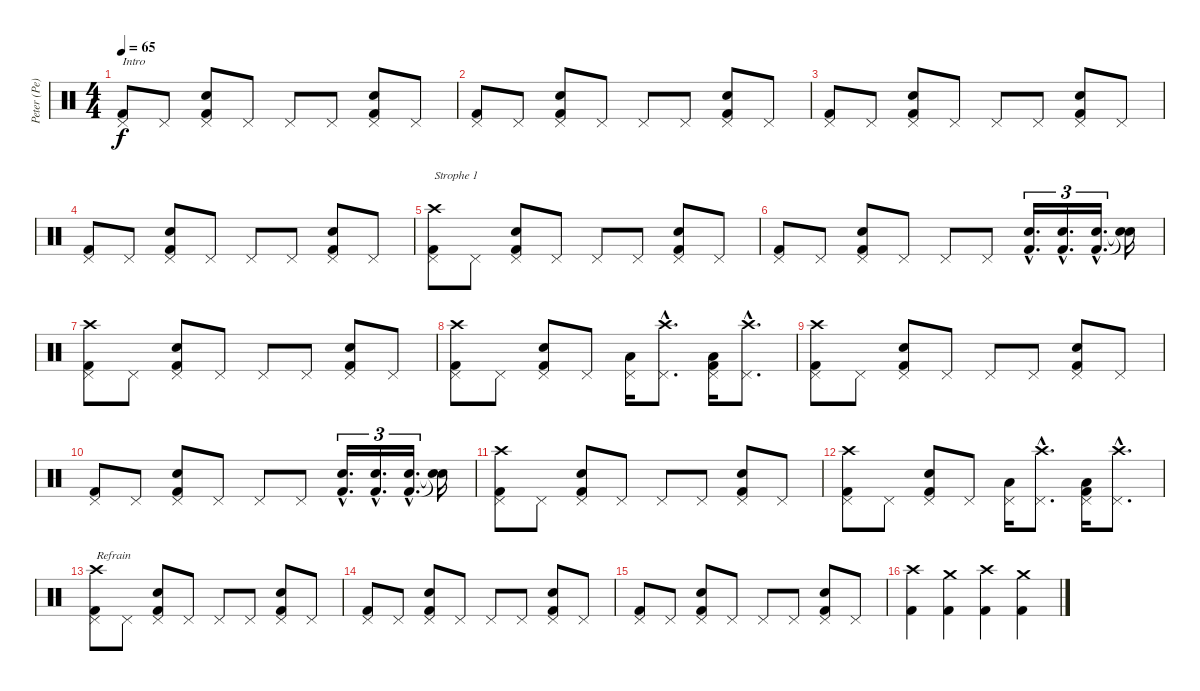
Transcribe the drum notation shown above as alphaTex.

\track ("Peter (Pe) Schorowsky" "Peter (Pe)") {instrument percussion}
\staff {score}
\articulation defaults
\ts (4 4)
\tempo 65
\clef neutral
\ks c
("Pedal Hi-Hat (hit)" "Kick (hit) 2").8{txt "Intro" dy f} "Pedal Hi-Hat (hit)".8 ("Pedal Hi-Hat (hit)" "Snare (hit) 2" "Kick (hit) 2").8 "Pedal Hi-Hat (hit)".8 "Pedal Hi-Hat (hit)".8 "Pedal Hi-Hat (hit)".8 ("Pedal Hi-Hat (hit)" "Snare (hit) 2" "Kick (hit) 2").8 "Pedal Hi-Hat (hit)".8 |
("Pedal Hi-Hat (hit)" "Kick (hit) 2").8 "Pedal Hi-Hat (hit)".8 ("Pedal Hi-Hat (hit)" "Snare (hit) 2" "Kick (hit) 2").8 "Pedal Hi-Hat (hit)".8 "Pedal Hi-Hat (hit)".8 "Pedal Hi-Hat (hit)".8 ("Pedal Hi-Hat (hit)" "Snare (hit) 2" "Kick (hit) 2").8 "Pedal Hi-Hat (hit)".8 |
("Pedal Hi-Hat (hit)" "Kick (hit) 2").8 "Pedal Hi-Hat (hit)".8 ("Pedal Hi-Hat (hit)" "Snare (hit) 2" "Kick (hit) 2").8 "Pedal Hi-Hat (hit)".8 "Pedal Hi-Hat (hit)".8 "Pedal Hi-Hat (hit)".8 ("Pedal Hi-Hat (hit)" "Snare (hit) 2" "Kick (hit) 2").8 "Pedal Hi-Hat (hit)".8 |
("Pedal Hi-Hat (hit)" "Kick (hit) 2").8 "Pedal Hi-Hat (hit)".8 ("Pedal Hi-Hat (hit)" "Snare (hit) 2" "Kick (hit) 2").8 "Pedal Hi-Hat (hit)".8 "Pedal Hi-Hat (hit)".8 "Pedal Hi-Hat (hit)".8 ("Pedal Hi-Hat (hit)" "Snare (hit) 2" "Kick (hit) 2").8 "Pedal Hi-Hat (hit)".8 |
("Crash high (hit)" "Pedal Hi-Hat (hit)" "Kick (hit) 2").8{txt "Strophe 1"} "Pedal Hi-Hat (hit)".8 ("Pedal Hi-Hat (hit)" "Snare (hit) 2" "Kick (hit) 2").8 "Pedal Hi-Hat (hit)".8 "Pedal Hi-Hat (hit)".8 "Pedal Hi-Hat (hit)".8 ("Pedal Hi-Hat (hit)" "Snare (hit) 2" "Kick (hit) 2").8 "Pedal Hi-Hat (hit)".8 |
("Pedal Hi-Hat (hit)" "Kick (hit) 2").8 "Pedal Hi-Hat (hit)".8 ("Pedal Hi-Hat (hit)" "Snare (hit) 2" "Kick (hit) 2").8 "Pedal Hi-Hat (hit)".8 "Pedal Hi-Hat (hit)".8 "Pedal Hi-Hat (hit)".8 ("Snare (hit) 2"{hac} "Kick (hit) 2"{hac}).16{d tu (3 2)} ("Snare (hit) 2"{hac} "Kick (hit) 2"{hac}).16{d tu (3 2)} ("Snare (hit) 2"{hac} "Kick (hit) 2"{hac}).16{d tu (3 2)} ("Snare (hit)"{t} "Snare (hit)"{t}).16 |
("Crash high (hit)" "Pedal Hi-Hat (hit)" "Kick (hit) 2").8 "Pedal Hi-Hat (hit)".8 ("Pedal Hi-Hat (hit)" "Snare (hit) 2" "Kick (hit) 2").8 "Pedal Hi-Hat (hit)".8 "Pedal Hi-Hat (hit)".8 "Pedal Hi-Hat (hit)".8 ("Pedal Hi-Hat (hit)" "Snare (hit) 2" "Kick (hit) 2").8 "Pedal Hi-Hat (hit)".8 |
("Crash high (hit)" "Pedal Hi-Hat (hit)" "Kick (hit) 2").8 "Pedal Hi-Hat (hit)".8 ("Pedal Hi-Hat (hit)" "Snare (hit) 2" "Kick (hit) 2").8 "Pedal Hi-Hat (hit)".8 ("Pedal Hi-Hat (hit)" "Low Tom (hit)").16 ("Crash high (hit)"{hac} "Pedal Hi-Hat (hit)"{hac}).8{d} ("Pedal Hi-Hat (hit)" "Low Tom (hit)" "Kick (hit) 2").16 ("Crash high (hit)"{hac} "Pedal Hi-Hat (hit)"{hac}).8{d} |
("Crash high (hit)" "Pedal Hi-Hat (hit)" "Kick (hit) 2").8 "Pedal Hi-Hat (hit)".8 ("Pedal Hi-Hat (hit)" "Snare (hit) 2" "Kick (hit) 2").8 "Pedal Hi-Hat (hit)".8 "Pedal Hi-Hat (hit)".8 "Pedal Hi-Hat (hit)".8 ("Pedal Hi-Hat (hit)" "Snare (hit) 2" "Kick (hit) 2").8 "Pedal Hi-Hat (hit)".8 |
("Pedal Hi-Hat (hit)" "Kick (hit) 2").8 "Pedal Hi-Hat (hit)".8 ("Pedal Hi-Hat (hit)" "Snare (hit) 2" "Kick (hit) 2").8 "Pedal Hi-Hat (hit)".8 "Pedal Hi-Hat (hit)".8 "Pedal Hi-Hat (hit)".8 ("Snare (hit) 2"{hac} "Kick (hit) 2"{hac}).16{d tu (3 2)} ("Snare (hit) 2"{hac} "Kick (hit) 2"{hac}).16{d tu (3 2)} ("Snare (hit) 2"{hac} "Kick (hit) 2"{hac}).16{d tu (3 2)} ("Snare (hit)"{t} "Snare (hit)"{t}).16 |
("Crash high (hit)" "Pedal Hi-Hat (hit)" "Kick (hit) 2").8 "Pedal Hi-Hat (hit)".8 ("Pedal Hi-Hat (hit)" "Snare (hit) 2" "Kick (hit) 2").8 "Pedal Hi-Hat (hit)".8 "Pedal Hi-Hat (hit)".8 "Pedal Hi-Hat (hit)".8 ("Pedal Hi-Hat (hit)" "Snare (hit) 2" "Kick (hit) 2").8 "Pedal Hi-Hat (hit)".8 |
("Crash high (hit)" "Pedal Hi-Hat (hit)" "Kick (hit) 2").8 "Pedal Hi-Hat (hit)".8 ("Pedal Hi-Hat (hit)" "Snare (hit) 2" "Kick (hit) 2").8 "Pedal Hi-Hat (hit)".8 ("Pedal Hi-Hat (hit)" "Low Tom (hit)").16 ("Crash high (hit)"{hac} "Pedal Hi-Hat (hit)"{hac}).8{d} ("Pedal Hi-Hat (hit)" "Low Tom (hit)" "Kick (hit) 2").16 ("Crash high (hit)"{hac} "Pedal Hi-Hat (hit)"{hac}).8{d} |
("Crash high (hit)" "Pedal Hi-Hat (hit)" "Kick (hit) 2").8{txt "Refrain"} "Pedal Hi-Hat (hit)".8 ("Pedal Hi-Hat (hit)" "Snare (hit) 2" "Kick (hit) 2").8 "Pedal Hi-Hat (hit)".8 "Pedal Hi-Hat (hit)".8 "Pedal Hi-Hat (hit)".8 ("Pedal Hi-Hat (hit)" "Snare (hit) 2" "Kick (hit) 2").8 "Pedal Hi-Hat (hit)".8 |
("Pedal Hi-Hat (hit)" "Kick (hit) 2").8 "Pedal Hi-Hat (hit)".8 ("Pedal Hi-Hat (hit)" "Snare (hit) 2" "Kick (hit) 2").8 "Pedal Hi-Hat (hit)".8 "Pedal Hi-Hat (hit)".8 "Pedal Hi-Hat (hit)".8 ("Pedal Hi-Hat (hit)" "Snare (hit) 2" "Kick (hit) 2").8 "Pedal Hi-Hat (hit)".8 |
("Pedal Hi-Hat (hit)" "Kick (hit) 2").8 "Pedal Hi-Hat (hit)".8 ("Pedal Hi-Hat (hit)" "Snare (hit) 2" "Kick (hit) 2").8 "Pedal Hi-Hat (hit)".8 "Pedal Hi-Hat (hit)".8 "Pedal Hi-Hat (hit)".8 ("Pedal Hi-Hat (hit)" "Snare (hit) 2" "Kick (hit) 2").8 "Pedal Hi-Hat (hit)".8 |
("Crash high (hit)" "Kick (hit) 2").4 ("Crash medium (hit)" "Kick (hit) 2").4 ("Crash high (hit)" "Kick (hit) 2").4 ("Crash medium (hit)" "Kick (hit) 2").4
